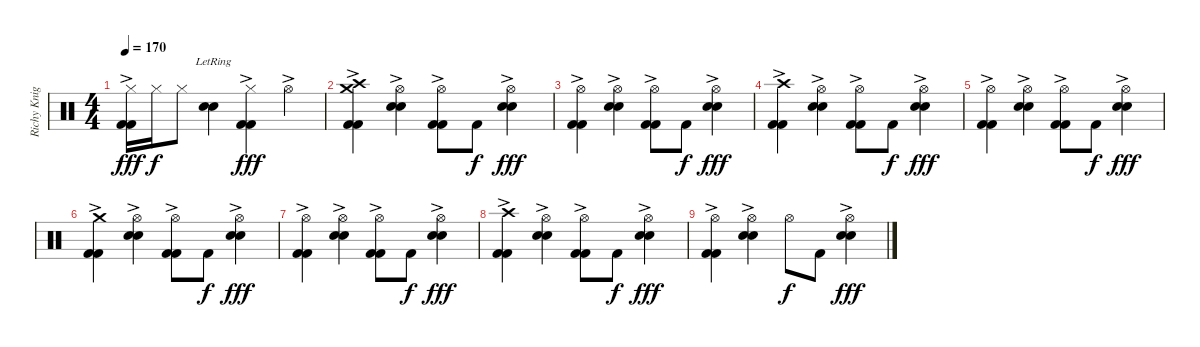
\track ("Richy Knight (Drums)" "Richy Knig") {instrument percussion}
\staff {score}
\articulation defaults
\ts (4 4)
\tempo 170
\clef neutral
\ks c
("Hi-Hat (closed)" "Kick (hit) 2"{ac} "Kick (hit) 2"{ac}).16{dy fff} "Hi-Hat (closed)".16{dy f} "Hi-Hat (closed)".8 ("Electric Snare (hit)"{lr} "Electric Snare (hit)"{lr}).4 ("Hi-Hat (closed)" "Kick (hit) 2"{ac} "Kick (hit) 2"{ac}).4{dy fff} "Hi-Hat (open)"{ac}.4 |
("Crash high (hit)"{ac} "Crash medium (hit)"{ac} "Kick (hit) 2"{ac} "Kick (hit) 2"{ac}).4 ("Hi-Hat (open)"{ac} "Electric Snare (hit)"{ac} "Electric Snare (hit)"{ac}).4 ("Hi-Hat (open)"{ac} "Kick (hit) 2"{ac} "Kick (hit) 2"{ac}).8 "Kick (hit) 2".8{dy f} ("Hi-Hat (open)"{ac} "Electric Snare (hit)"{ac} "Electric Snare (hit)"{ac}).4{dy fff} |
("Hi-Hat (open)"{ac} "Kick (hit) 2"{ac} "Kick (hit) 2"{ac}).4 ("Hi-Hat (open)"{ac} "Electric Snare (hit)"{ac} "Electric Snare (hit)"{ac}).4 ("Hi-Hat (open)"{ac} "Kick (hit) 2"{ac} "Kick (hit) 2"{ac}).8 "Kick (hit) 2".8{dy f} ("Hi-Hat (open)"{ac} "Electric Snare (hit)"{ac} "Electric Snare (hit)"{ac}).4{dy fff} |
("Crash high (hit)"{ac} "Kick (hit) 2"{ac} "Kick (hit) 2"{ac}).4 ("Hi-Hat (open)"{ac} "Electric Snare (hit)"{ac} "Electric Snare (hit)"{ac}).4 ("Hi-Hat (open)"{ac} "Kick (hit) 2"{ac} "Kick (hit) 2"{ac}).8 "Kick (hit) 2".8{dy f} ("Hi-Hat (open)"{ac} "Electric Snare (hit)"{ac} "Electric Snare (hit)"{ac}).4{dy fff} |
("Hi-Hat (open)"{ac} "Kick (hit) 2"{ac} "Kick (hit) 2"{ac}).4 ("Hi-Hat (open)"{ac} "Electric Snare (hit)"{ac} "Electric Snare (hit)"{ac}).4 ("Hi-Hat (open)"{ac} "Kick (hit) 2"{ac} "Kick (hit) 2"{ac}).8 "Kick (hit) 2".8{dy f} ("Hi-Hat (open)"{ac} "Electric Snare (hit)"{ac} "Electric Snare (hit)"{ac}).4{dy fff} |
("Crash medium (hit)"{ac} "Kick (hit) 2"{ac} "Kick (hit) 2"{ac}).4 ("Hi-Hat (open)"{ac} "Electric Snare (hit)"{ac} "Electric Snare (hit)"{ac}).4 ("Hi-Hat (open)"{ac} "Kick (hit) 2"{ac} "Kick (hit) 2"{ac}).8 "Kick (hit) 2".8{dy f} ("Hi-Hat (open)"{ac} "Electric Snare (hit)"{ac} "Electric Snare (hit)"{ac}).4{dy fff} |
("Hi-Hat (open)"{ac} "Kick (hit) 2"{ac} "Kick (hit) 2"{ac}).4 ("Hi-Hat (open)"{ac} "Electric Snare (hit)"{ac} "Electric Snare (hit)"{ac}).4 ("Hi-Hat (open)"{ac} "Kick (hit) 2"{ac} "Kick (hit) 2"{ac}).8 "Kick (hit) 2".8{dy f} ("Hi-Hat (open)"{ac} "Electric Snare (hit)"{ac} "Electric Snare (hit)"{ac}).4{dy fff} |
("Crash high (hit)"{ac} "Kick (hit) 2"{ac} "Kick (hit) 2"{ac}).4 ("Hi-Hat (open)"{ac} "Electric Snare (hit)"{ac} "Electric Snare (hit)"{ac}).4 ("Hi-Hat (open)"{ac} "Kick (hit) 2"{ac} "Kick (hit) 2"{ac}).8 "Kick (hit) 2".8{dy f} ("Hi-Hat (open)"{ac} "Electric Snare (hit)"{ac} "Electric Snare (hit)"{ac}).4{dy fff} |
("Hi-Hat (open)"{ac} "Kick (hit) 2"{ac} "Kick (hit) 2"{ac}).4 ("Hi-Hat (open)"{ac} "Electric Snare (hit)"{ac} "Electric Snare (hit)"{ac}).4 "Hi-Hat (open)".8{dy f} "Kick (hit) 2".8 ("Hi-Hat (open)"{ac} "Electric Snare (hit)"{ac} "Electric Snare (hit)"{ac}).4{dy fff}
